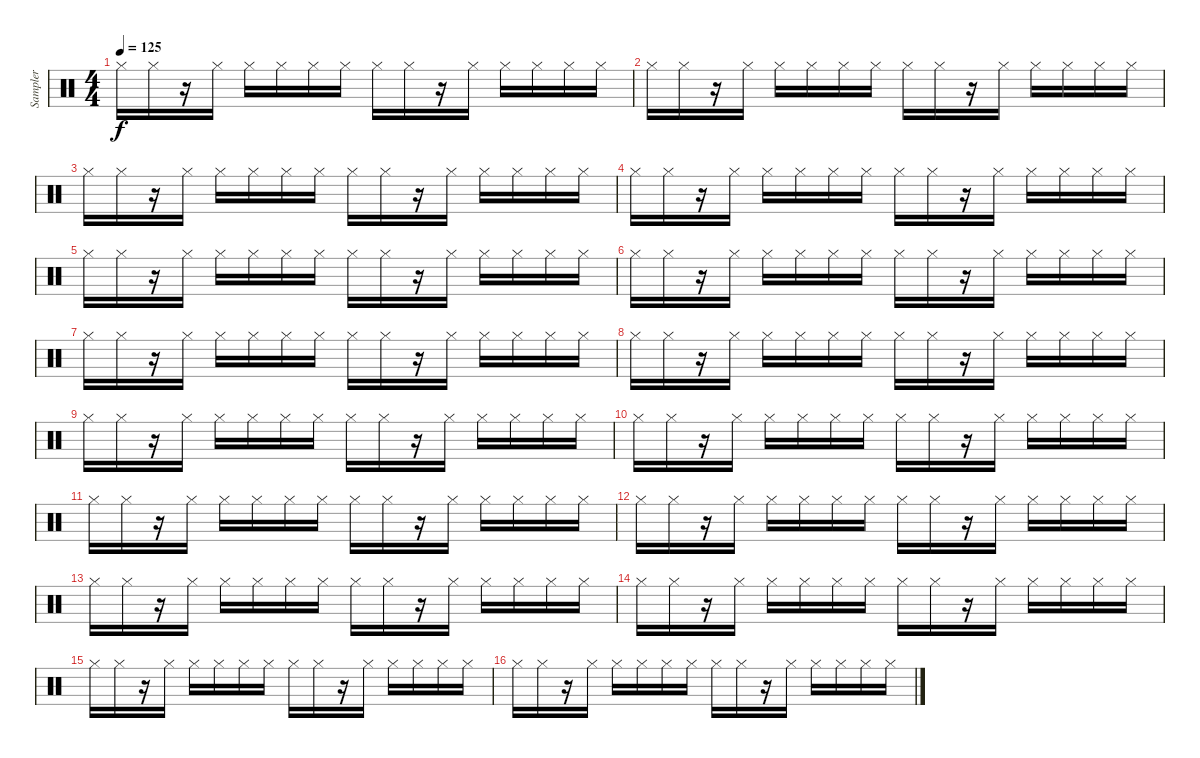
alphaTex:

\track ("Sampler" "Sampler") {instrument percussion}
\staff {score}
\articulation defaults
\ts (4 4)
\tempo 125
\clef neutral
\ks c "Hi-Hat (closed)".16{dy f} "Hi-Hat (closed)".16
r.16 "Hi-Hat (closed)".16 "Hi-Hat (closed)".16 "Hi-Hat (closed)".16 "Hi-Hat (closed)".16 "Hi-Hat (closed)".16 "Hi-Hat (closed)".16 "Hi-Hat (closed)".16 r.16 "Hi-Hat (closed)".16 "Hi-Hat (closed)".16 "Hi-Hat (closed)".16 "Hi-Hat (closed)".16 "Hi-Hat (closed)".16 |
"Hi-Hat (closed)".16 "Hi-Hat (closed)".16 r.16 "Hi-Hat (closed)".16 "Hi-Hat (closed)".16 "Hi-Hat (closed)".16 "Hi-Hat (closed)".16 "Hi-Hat (closed)".16 "Hi-Hat (closed)".16 "Hi-Hat (closed)".16 r.16 "Hi-Hat (closed)".16 "Hi-Hat (closed)".16 "Hi-Hat (closed)".16 "Hi-Hat (closed)".16 "Hi-Hat (closed)".16 |
"Hi-Hat (closed)".16 "Hi-Hat (closed)".16 r.16 "Hi-Hat (closed)".16 "Hi-Hat (closed)".16 "Hi-Hat (closed)".16 "Hi-Hat (closed)".16 "Hi-Hat (closed)".16 "Hi-Hat (closed)".16 "Hi-Hat (closed)".16 r.16 "Hi-Hat (closed)".16 "Hi-Hat (closed)".16 "Hi-Hat (closed)".16 "Hi-Hat (closed)".16 "Hi-Hat (closed)".16 |
"Hi-Hat (closed)".16 "Hi-Hat (closed)".16 r.16 "Hi-Hat (closed)".16 "Hi-Hat (closed)".16 "Hi-Hat (closed)".16 "Hi-Hat (closed)".16 "Hi-Hat (closed)".16 "Hi-Hat (closed)".16 "Hi-Hat (closed)".16 r.16 "Hi-Hat (closed)".16 "Hi-Hat (closed)".16 "Hi-Hat (closed)".16 "Hi-Hat (closed)".16 "Hi-Hat (closed)".16 |
"Hi-Hat (closed)".16 "Hi-Hat (closed)".16 r.16 "Hi-Hat (closed)".16 "Hi-Hat (closed)".16 "Hi-Hat (closed)".16 "Hi-Hat (closed)".16 "Hi-Hat (closed)".16 "Hi-Hat (closed)".16 "Hi-Hat (closed)".16 r.16 "Hi-Hat (closed)".16 "Hi-Hat (closed)".16 "Hi-Hat (closed)".16 "Hi-Hat (closed)".16 "Hi-Hat (closed)".16 |
"Hi-Hat (closed)".16 "Hi-Hat (closed)".16 r.16 "Hi-Hat (closed)".16 "Hi-Hat (closed)".16 "Hi-Hat (closed)".16 "Hi-Hat (closed)".16 "Hi-Hat (closed)".16 "Hi-Hat (closed)".16 "Hi-Hat (closed)".16 r.16 "Hi-Hat (closed)".16 "Hi-Hat (closed)".16 "Hi-Hat (closed)".16 "Hi-Hat (closed)".16 "Hi-Hat (closed)".16 |
"Hi-Hat (closed)".16 "Hi-Hat (closed)".16 r.16 "Hi-Hat (closed)".16 "Hi-Hat (closed)".16 "Hi-Hat (closed)".16 "Hi-Hat (closed)".16 "Hi-Hat (closed)".16 "Hi-Hat (closed)".16 "Hi-Hat (closed)".16 r.16 "Hi-Hat (closed)".16 "Hi-Hat (closed)".16 "Hi-Hat (closed)".16 "Hi-Hat (closed)".16 "Hi-Hat (closed)".16 |
"Hi-Hat (closed)".16 "Hi-Hat (closed)".16 r.16 "Hi-Hat (closed)".16 "Hi-Hat (closed)".16 "Hi-Hat (closed)".16 "Hi-Hat (closed)".16 "Hi-Hat (closed)".16 "Hi-Hat (closed)".16 "Hi-Hat (closed)".16 r.16 "Hi-Hat (closed)".16 "Hi-Hat (closed)".16 "Hi-Hat (closed)".16 "Hi-Hat (closed)".16 "Hi-Hat (closed)".16 |
"Hi-Hat (closed)".16 "Hi-Hat (closed)".16 r.16 "Hi-Hat (closed)".16 "Hi-Hat (closed)".16 "Hi-Hat (closed)".16 "Hi-Hat (closed)".16 "Hi-Hat (closed)".16 "Hi-Hat (closed)".16 "Hi-Hat (closed)".16 r.16 "Hi-Hat (closed)".16 "Hi-Hat (closed)".16 "Hi-Hat (closed)".16 "Hi-Hat (closed)".16 "Hi-Hat (closed)".16 |
"Hi-Hat (closed)".16 "Hi-Hat (closed)".16 r.16 "Hi-Hat (closed)".16 "Hi-Hat (closed)".16 "Hi-Hat (closed)".16 "Hi-Hat (closed)".16 "Hi-Hat (closed)".16 "Hi-Hat (closed)".16 "Hi-Hat (closed)".16 r.16 "Hi-Hat (closed)".16 "Hi-Hat (closed)".16 "Hi-Hat (closed)".16 "Hi-Hat (closed)".16 "Hi-Hat (closed)".16 |
"Hi-Hat (closed)".16 "Hi-Hat (closed)".16 r.16 "Hi-Hat (closed)".16 "Hi-Hat (closed)".16 "Hi-Hat (closed)".16 "Hi-Hat (closed)".16 "Hi-Hat (closed)".16 "Hi-Hat (closed)".16 "Hi-Hat (closed)".16 r.16 "Hi-Hat (closed)".16 "Hi-Hat (closed)".16 "Hi-Hat (closed)".16 "Hi-Hat (closed)".16 "Hi-Hat (closed)".16 |
"Hi-Hat (closed)".16 "Hi-Hat (closed)".16 r.16 "Hi-Hat (closed)".16 "Hi-Hat (closed)".16 "Hi-Hat (closed)".16 "Hi-Hat (closed)".16 "Hi-Hat (closed)".16 "Hi-Hat (closed)".16 "Hi-Hat (closed)".16 r.16 "Hi-Hat (closed)".16 "Hi-Hat (closed)".16 "Hi-Hat (closed)".16 "Hi-Hat (closed)".16 "Hi-Hat (closed)".16 |
"Hi-Hat (closed)".16 "Hi-Hat (closed)".16 r.16 "Hi-Hat (closed)".16 "Hi-Hat (closed)".16 "Hi-Hat (closed)".16 "Hi-Hat (closed)".16 "Hi-Hat (closed)".16 "Hi-Hat (closed)".16 "Hi-Hat (closed)".16 r.16 "Hi-Hat (closed)".16 "Hi-Hat (closed)".16 "Hi-Hat (closed)".16 "Hi-Hat (closed)".16 "Hi-Hat (closed)".16 |
"Hi-Hat (closed)".16 "Hi-Hat (closed)".16 r.16 "Hi-Hat (closed)".16 "Hi-Hat (closed)".16 "Hi-Hat (closed)".16 "Hi-Hat (closed)".16 "Hi-Hat (closed)".16 "Hi-Hat (closed)".16 "Hi-Hat (closed)".16 r.16 "Hi-Hat (closed)".16 "Hi-Hat (closed)".16 "Hi-Hat (closed)".16 "Hi-Hat (closed)".16 "Hi-Hat (closed)".16 |
"Hi-Hat (closed)".16 "Hi-Hat (closed)".16 r.16 "Hi-Hat (closed)".16 "Hi-Hat (closed)".16 "Hi-Hat (closed)".16 "Hi-Hat (closed)".16 "Hi-Hat (closed)".16 "Hi-Hat (closed)".16 "Hi-Hat (closed)".16 r.16 "Hi-Hat (closed)".16 "Hi-Hat (closed)".16 "Hi-Hat (closed)".16 "Hi-Hat (closed)".16 "Hi-Hat (closed)".16 |
"Hi-Hat (closed)".16 "Hi-Hat (closed)".16 r.16 "Hi-Hat (closed)".16 "Hi-Hat (closed)".16 "Hi-Hat (closed)".16 "Hi-Hat (closed)".16 "Hi-Hat (closed)".16 "Hi-Hat (closed)".16 "Hi-Hat (closed)".16 r.16 "Hi-Hat (closed)".16 "Hi-Hat (closed)".16 "Hi-Hat (closed)".16 "Hi-Hat (closed)".16 "Hi-Hat (closed)".16
